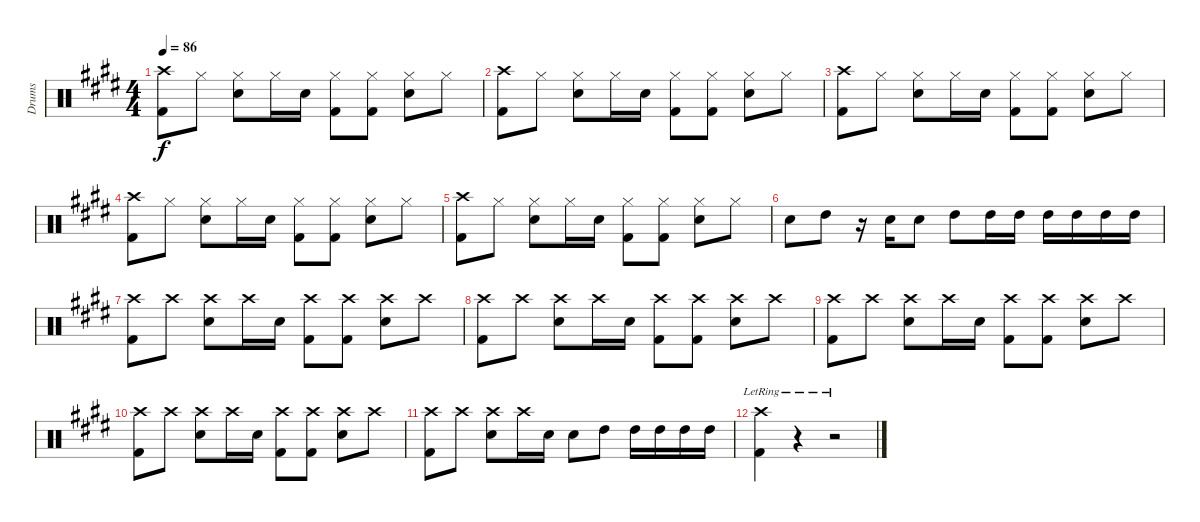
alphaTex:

\track ("Drums" "Drums") {instrument percussion}
\staff {score}
\articulation defaults
\ts (4 4)
\tempo 86
\clef neutral
\ks e
("Crash high (hit)" "Kick (hit) 2").8{dy f} "Hi-Hat (closed)".8 ("Hi-Hat (closed)" "Snare (hit) 2").8 "Hi-Hat (closed)".16 "Snare (hit) 2".16 ("Hi-Hat (closed)" "Kick (hit) 2").8 ("Hi-Hat (closed)" "Kick (hit) 2").8 ("Hi-Hat (closed)" "Snare (hit) 2").8 "Hi-Hat (closed)".8 |
("Crash high (hit)" "Kick (hit) 2").8 "Hi-Hat (closed)".8 ("Hi-Hat (closed)" "Snare (hit) 2").8 "Hi-Hat (closed)".16 "Snare (hit) 2".16 ("Hi-Hat (closed)" "Kick (hit) 2").8 ("Hi-Hat (closed)" "Kick (hit) 2").8 ("Hi-Hat (closed)" "Snare (hit) 2").8 "Hi-Hat (closed)".8 |
("Crash high (hit)" "Kick (hit) 2").8 "Hi-Hat (closed)".8 ("Hi-Hat (closed)" "Snare (hit) 2").8 "Hi-Hat (closed)".16 "Snare (hit) 2".16 ("Hi-Hat (closed)" "Kick (hit) 2").8 ("Hi-Hat (closed)" "Kick (hit) 2").8 ("Hi-Hat (closed)" "Snare (hit) 2").8 "Hi-Hat (closed)".8 |
("Crash high (hit)" "Kick (hit) 2").8 "Hi-Hat (closed)".8 ("Hi-Hat (closed)" "Snare (hit) 2").8 "Hi-Hat (closed)".16 "Snare (hit) 2".16 ("Hi-Hat (closed)" "Kick (hit) 2").8 ("Hi-Hat (closed)" "Kick (hit) 2").8 ("Hi-Hat (closed)" "Snare (hit) 2").8 "Hi-Hat (closed)".8 |
("Crash high (hit)" "Kick (hit) 2").8 "Hi-Hat (closed)".8 ("Hi-Hat (closed)" "Snare (hit) 2").8 "Hi-Hat (closed)".16 "Snare (hit) 2".16 ("Hi-Hat (closed)" "Kick (hit) 2").8 ("Hi-Hat (closed)" "Kick (hit) 2").8 ("Hi-Hat (closed)" "Snare (hit) 2").8 "Hi-Hat (closed)".8 |
"Snare (hit) 2".8 "High Tom (hit)".8 r.16 "Snare (hit) 2".16 "Snare (hit) 2".8 "High Tom (hit)".8 "High Tom (hit)".16 "High Tom (hit)".16 "High Tom (hit)".16 "High Tom (hit)".16 "High Tom (hit)".16 "High Tom (hit)".16 |
("Crash high (hit)" "Kick (hit) 2").8 "Crash high (hit)".8 ("Crash high (hit)" "Snare (hit) 2").8 "Crash high (hit)".16 "Snare (hit) 2".16 ("Crash high (hit)" "Kick (hit) 2").8 ("Crash high (hit)" "Kick (hit) 2").8 ("Crash high (hit)" "Snare (hit) 2").8 "Crash high (hit)".8 |
("Crash high (hit)" "Kick (hit) 2").8 "Crash high (hit)".8 ("Crash high (hit)" "Snare (hit) 2").8 "Crash high (hit)".16 "Snare (hit) 2".16 ("Crash high (hit)" "Kick (hit) 2").8 ("Crash high (hit)" "Kick (hit) 2").8 ("Crash high (hit)" "Snare (hit) 2").8 "Crash high (hit)".8 |
("Crash high (hit)" "Kick (hit) 2").8 "Crash high (hit)".8 ("Crash high (hit)" "Snare (hit) 2").8 "Crash high (hit)".16 "Snare (hit) 2".16 ("Crash high (hit)" "Kick (hit) 2").8 ("Crash high (hit)" "Kick (hit) 2").8 ("Crash high (hit)" "Snare (hit) 2").8 "Crash high (hit)".8 |
("Crash high (hit)" "Kick (hit) 2").8 "Crash high (hit)".8 ("Crash high (hit)" "Snare (hit) 2").8 "Crash high (hit)".16 "Snare (hit) 2".16 ("Crash high (hit)" "Kick (hit) 2").8 ("Crash high (hit)" "Kick (hit) 2").8 ("Crash high (hit)" "Snare (hit) 2").8 "Crash high (hit)".8 |
("Crash high (hit)" "Kick (hit) 2").8 "Crash high (hit)".8 ("Crash high (hit)" "Snare (hit) 2").8 "Crash high (hit)".16 "Snare (hit) 2".16 "Snare (hit) 2".8 "High Tom (hit)".8 "High Tom (hit)".16 "High Tom (hit)".16 "High Tom (hit)".16 "High Tom (hit)".16 |
("Crash high (hit)"{lr} "Kick (hit) 2").4 r.4 r.2
